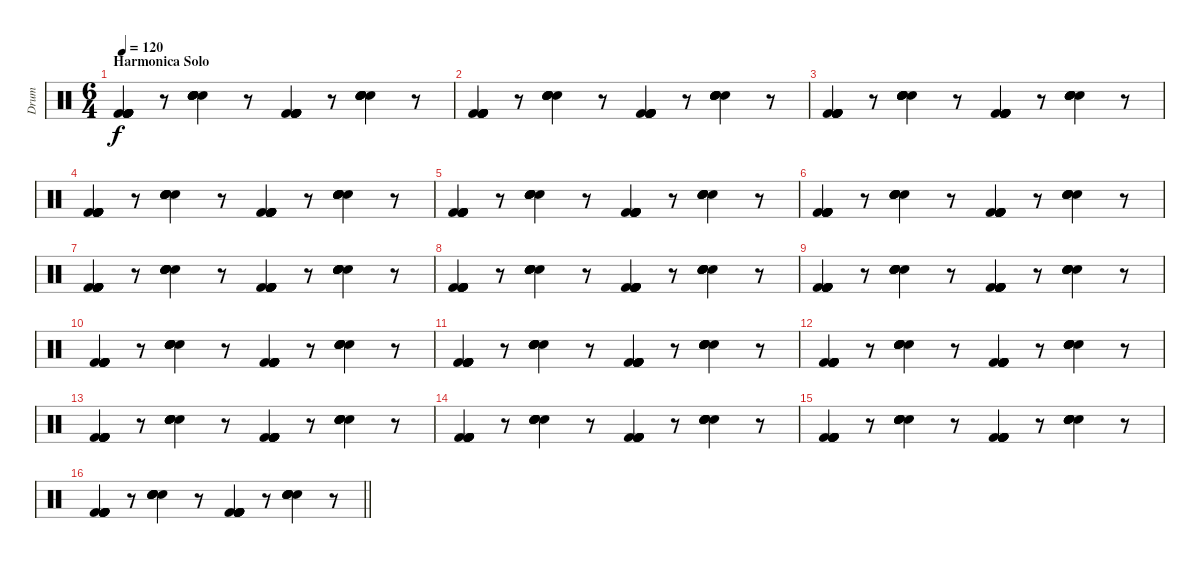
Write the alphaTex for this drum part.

\track ("Drum" "Drum") {instrument percussion}
\staff {score}
\articulation defaults
\ts (6 4)
\section ("" "Harmonica Solo")
\tempo 120
\clef neutral
\ks c
("Kick (hit) 2" "Kick (hit) 2" "Kick (hit) 2" "Kick (hit) 2" "Kick (hit) 2" "Kick (hit) 2").4{dy f} r.8 ("Electric Snare (hit)" "Electric Snare (hit)" "Electric Snare (hit)" "Electric Snare (hit)" "Electric Snare (hit)" "Electric Snare (hit)").4 r.8 ("Kick (hit) 2" "Kick (hit) 2" "Kick (hit) 2" "Kick (hit) 2" "Kick (hit) 2" "Kick (hit) 2").4 r.8 ("Electric Snare (hit)" "Electric Snare (hit)" "Electric Snare (hit)" "Electric Snare (hit)" "Electric Snare (hit)" "Electric Snare (hit)").4 r.8 |
("Kick (hit) 2" "Kick (hit) 2" "Kick (hit) 2" "Kick (hit) 2" "Kick (hit) 2" "Kick (hit) 2").4 r.8 ("Electric Snare (hit)" "Electric Snare (hit)" "Electric Snare (hit)" "Electric Snare (hit)" "Electric Snare (hit)" "Electric Snare (hit)").4 r.8 ("Kick (hit) 2" "Kick (hit) 2" "Kick (hit) 2" "Kick (hit) 2" "Kick (hit) 2" "Kick (hit) 2").4 r.8 ("Electric Snare (hit)" "Electric Snare (hit)" "Electric Snare (hit)" "Electric Snare (hit)" "Electric Snare (hit)" "Electric Snare (hit)").4 r.8 |
("Kick (hit) 2" "Kick (hit) 2" "Kick (hit) 2" "Kick (hit) 2" "Kick (hit) 2" "Kick (hit) 2").4 r.8 ("Electric Snare (hit)" "Electric Snare (hit)" "Electric Snare (hit)" "Electric Snare (hit)" "Electric Snare (hit)" "Electric Snare (hit)").4 r.8 ("Kick (hit) 2" "Kick (hit) 2" "Kick (hit) 2" "Kick (hit) 2" "Kick (hit) 2" "Kick (hit) 2").4 r.8 ("Electric Snare (hit)" "Electric Snare (hit)" "Electric Snare (hit)" "Electric Snare (hit)" "Electric Snare (hit)" "Electric Snare (hit)").4 r.8 |
("Kick (hit) 2" "Kick (hit) 2" "Kick (hit) 2" "Kick (hit) 2" "Kick (hit) 2" "Kick (hit) 2").4 r.8 ("Electric Snare (hit)" "Electric Snare (hit)" "Electric Snare (hit)" "Electric Snare (hit)" "Electric Snare (hit)" "Electric Snare (hit)").4 r.8 ("Kick (hit) 2" "Kick (hit) 2" "Kick (hit) 2" "Kick (hit) 2" "Kick (hit) 2" "Kick (hit) 2").4 r.8 ("Electric Snare (hit)" "Electric Snare (hit)" "Electric Snare (hit)" "Electric Snare (hit)" "Electric Snare (hit)" "Electric Snare (hit)").4 r.8 |
("Kick (hit) 2" "Kick (hit) 2" "Kick (hit) 2" "Kick (hit) 2" "Kick (hit) 2" "Kick (hit) 2").4 r.8 ("Electric Snare (hit)" "Electric Snare (hit)" "Electric Snare (hit)" "Electric Snare (hit)" "Electric Snare (hit)" "Electric Snare (hit)").4 r.8 ("Kick (hit) 2" "Kick (hit) 2" "Kick (hit) 2" "Kick (hit) 2" "Kick (hit) 2" "Kick (hit) 2").4 r.8 ("Electric Snare (hit)" "Electric Snare (hit)" "Electric Snare (hit)" "Electric Snare (hit)" "Electric Snare (hit)" "Electric Snare (hit)").4 r.8 |
("Kick (hit) 2" "Kick (hit) 2" "Kick (hit) 2" "Kick (hit) 2" "Kick (hit) 2" "Kick (hit) 2").4 r.8 ("Electric Snare (hit)" "Electric Snare (hit)" "Electric Snare (hit)" "Electric Snare (hit)" "Electric Snare (hit)" "Electric Snare (hit)").4 r.8 ("Kick (hit) 2" "Kick (hit) 2" "Kick (hit) 2" "Kick (hit) 2" "Kick (hit) 2" "Kick (hit) 2").4 r.8 ("Electric Snare (hit)" "Electric Snare (hit)" "Electric Snare (hit)" "Electric Snare (hit)" "Electric Snare (hit)" "Electric Snare (hit)").4 r.8 |
("Kick (hit) 2" "Kick (hit) 2" "Kick (hit) 2" "Kick (hit) 2" "Kick (hit) 2" "Kick (hit) 2").4 r.8 ("Electric Snare (hit)" "Electric Snare (hit)" "Electric Snare (hit)" "Electric Snare (hit)" "Electric Snare (hit)" "Electric Snare (hit)").4 r.8 ("Kick (hit) 2" "Kick (hit) 2" "Kick (hit) 2" "Kick (hit) 2" "Kick (hit) 2" "Kick (hit) 2").4 r.8 ("Electric Snare (hit)" "Electric Snare (hit)" "Electric Snare (hit)" "Electric Snare (hit)" "Electric Snare (hit)" "Electric Snare (hit)").4 r.8 |
("Kick (hit) 2" "Kick (hit) 2" "Kick (hit) 2" "Kick (hit) 2" "Kick (hit) 2" "Kick (hit) 2").4 r.8 ("Electric Snare (hit)" "Electric Snare (hit)" "Electric Snare (hit)" "Electric Snare (hit)" "Electric Snare (hit)" "Electric Snare (hit)").4 r.8 ("Kick (hit) 2" "Kick (hit) 2" "Kick (hit) 2" "Kick (hit) 2" "Kick (hit) 2" "Kick (hit) 2").4 r.8 ("Electric Snare (hit)" "Electric Snare (hit)" "Electric Snare (hit)" "Electric Snare (hit)" "Electric Snare (hit)" "Electric Snare (hit)").4 r.8 |
("Kick (hit) 2" "Kick (hit) 2" "Kick (hit) 2" "Kick (hit) 2" "Kick (hit) 2" "Kick (hit) 2").4 r.8 ("Electric Snare (hit)" "Electric Snare (hit)" "Electric Snare (hit)" "Electric Snare (hit)" "Electric Snare (hit)" "Electric Snare (hit)").4 r.8 ("Kick (hit) 2" "Kick (hit) 2" "Kick (hit) 2" "Kick (hit) 2" "Kick (hit) 2" "Kick (hit) 2").4 r.8 ("Electric Snare (hit)" "Electric Snare (hit)" "Electric Snare (hit)" "Electric Snare (hit)" "Electric Snare (hit)" "Electric Snare (hit)").4 r.8 |
("Kick (hit) 2" "Kick (hit) 2" "Kick (hit) 2" "Kick (hit) 2" "Kick (hit) 2" "Kick (hit) 2").4 r.8 ("Electric Snare (hit)" "Electric Snare (hit)" "Electric Snare (hit)" "Electric Snare (hit)" "Electric Snare (hit)" "Electric Snare (hit)").4 r.8 ("Kick (hit) 2" "Kick (hit) 2" "Kick (hit) 2" "Kick (hit) 2" "Kick (hit) 2" "Kick (hit) 2").4 r.8 ("Electric Snare (hit)" "Electric Snare (hit)" "Electric Snare (hit)" "Electric Snare (hit)" "Electric Snare (hit)" "Electric Snare (hit)").4 r.8 |
("Kick (hit) 2" "Kick (hit) 2" "Kick (hit) 2" "Kick (hit) 2" "Kick (hit) 2" "Kick (hit) 2").4 r.8 ("Electric Snare (hit)" "Electric Snare (hit)" "Electric Snare (hit)" "Electric Snare (hit)" "Electric Snare (hit)" "Electric Snare (hit)").4 r.8 ("Kick (hit) 2" "Kick (hit) 2" "Kick (hit) 2" "Kick (hit) 2" "Kick (hit) 2" "Kick (hit) 2").4 r.8 ("Electric Snare (hit)" "Electric Snare (hit)" "Electric Snare (hit)" "Electric Snare (hit)" "Electric Snare (hit)" "Electric Snare (hit)").4 r.8 |
("Kick (hit) 2" "Kick (hit) 2" "Kick (hit) 2" "Kick (hit) 2" "Kick (hit) 2" "Kick (hit) 2").4 r.8 ("Electric Snare (hit)" "Electric Snare (hit)" "Electric Snare (hit)" "Electric Snare (hit)" "Electric Snare (hit)" "Electric Snare (hit)").4 r.8 ("Kick (hit) 2" "Kick (hit) 2" "Kick (hit) 2" "Kick (hit) 2" "Kick (hit) 2" "Kick (hit) 2").4 r.8 ("Electric Snare (hit)" "Electric Snare (hit)" "Electric Snare (hit)" "Electric Snare (hit)" "Electric Snare (hit)" "Electric Snare (hit)").4 r.8 |
("Kick (hit) 2" "Kick (hit) 2" "Kick (hit) 2" "Kick (hit) 2" "Kick (hit) 2" "Kick (hit) 2").4 r.8 ("Electric Snare (hit)" "Electric Snare (hit)" "Electric Snare (hit)" "Electric Snare (hit)" "Electric Snare (hit)" "Electric Snare (hit)").4 r.8 ("Kick (hit) 2" "Kick (hit) 2" "Kick (hit) 2" "Kick (hit) 2" "Kick (hit) 2" "Kick (hit) 2").4 r.8 ("Electric Snare (hit)" "Electric Snare (hit)" "Electric Snare (hit)" "Electric Snare (hit)" "Electric Snare (hit)" "Electric Snare (hit)").4 r.8 |
("Kick (hit) 2" "Kick (hit) 2" "Kick (hit) 2" "Kick (hit) 2" "Kick (hit) 2" "Kick (hit) 2").4 r.8 ("Electric Snare (hit)" "Electric Snare (hit)" "Electric Snare (hit)" "Electric Snare (hit)" "Electric Snare (hit)" "Electric Snare (hit)").4 r.8 ("Kick (hit) 2" "Kick (hit) 2" "Kick (hit) 2" "Kick (hit) 2" "Kick (hit) 2" "Kick (hit) 2").4 r.8 ("Electric Snare (hit)" "Electric Snare (hit)" "Electric Snare (hit)" "Electric Snare (hit)" "Electric Snare (hit)" "Electric Snare (hit)").4 r.8 |
("Kick (hit) 2" "Kick (hit) 2" "Kick (hit) 2" "Kick (hit) 2" "Kick (hit) 2" "Kick (hit) 2").4 r.8 ("Electric Snare (hit)" "Electric Snare (hit)" "Electric Snare (hit)" "Electric Snare (hit)" "Electric Snare (hit)" "Electric Snare (hit)").4 r.8 ("Kick (hit) 2" "Kick (hit) 2" "Kick (hit) 2" "Kick (hit) 2" "Kick (hit) 2" "Kick (hit) 2").4 r.8 ("Electric Snare (hit)" "Electric Snare (hit)" "Electric Snare (hit)" "Electric Snare (hit)" "Electric Snare (hit)" "Electric Snare (hit)").4 r.8 |
\barLineRight lightlight
("Kick (hit) 2" "Kick (hit) 2" "Kick (hit) 2" "Kick (hit) 2" "Kick (hit) 2" "Kick (hit) 2").4 r.8 ("Electric Snare (hit)" "Electric Snare (hit)" "Electric Snare (hit)" "Electric Snare (hit)" "Electric Snare (hit)" "Electric Snare (hit)").4 r.8 ("Kick (hit) 2" "Kick (hit) 2" "Kick (hit) 2" "Kick (hit) 2" "Kick (hit) 2" "Kick (hit) 2").4 r.8 ("Electric Snare (hit)" "Electric Snare (hit)" "Electric Snare (hit)" "Electric Snare (hit)" "Electric Snare (hit)" "Electric Snare (hit)").4 r.8
